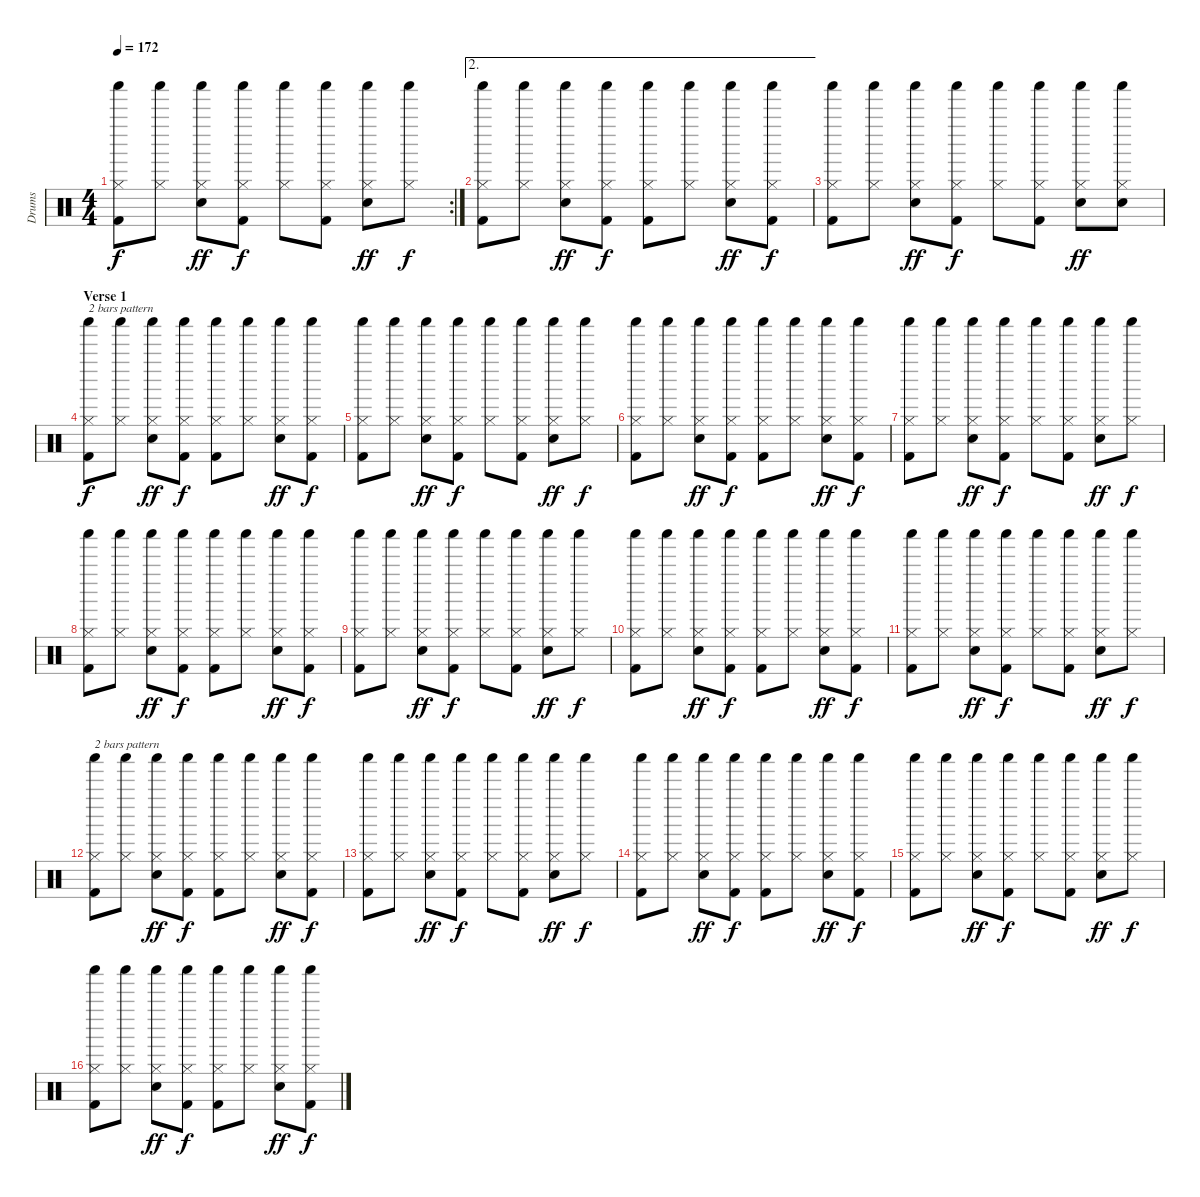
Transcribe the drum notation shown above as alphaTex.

\track ("Drums" "Drums") {instrument percussion}
\staff {score}
\articulation defaults
\rc 2
\ts (4 4)
\tempo 172
\clef neutral
\ks c
("Hi-Hat (closed)" "Shaker (hit)" "Kick (hit) 2").8{dy f} ("Hi-Hat (closed)" "Shaker (hit)").8 ("Hi-Hat (closed)" "Shaker (hit)" "Electric Snare (hit)").8{dy ff} ("Hi-Hat (closed)" "Shaker (hit)" "Kick (hit) 2").8{dy f} ("Hi-Hat (closed)" "Shaker (hit)").8 ("Hi-Hat (closed)" "Shaker (hit)" "Kick (hit) 2").8 ("Hi-Hat (closed)" "Shaker (hit)" "Electric Snare (hit)").8{dy ff} ("Hi-Hat (closed)" "Shaker (hit)").8{dy f} |
\ae 2
("Hi-Hat (closed)" "Shaker (hit)" "Kick (hit) 2").8 ("Hi-Hat (closed)" "Shaker (hit)").8 ("Hi-Hat (closed)" "Shaker (hit)" "Electric Snare (hit)").8{dy ff} ("Hi-Hat (closed)" "Shaker (hit)" "Kick (hit) 2").8{dy f} ("Hi-Hat (closed)" "Shaker (hit)" "Kick (hit) 2").8 ("Hi-Hat (closed)" "Shaker (hit)").8 ("Hi-Hat (closed)" "Shaker (hit)" "Electric Snare (hit)").8{dy ff} ("Hi-Hat (closed)" "Shaker (hit)" "Kick (hit) 2").8{dy f} |
("Hi-Hat (closed)" "Shaker (hit)" "Kick (hit) 2").8 ("Hi-Hat (closed)" "Shaker (hit)").8 ("Hi-Hat (closed)" "Shaker (hit)" "Electric Snare (hit)").8{dy ff} ("Hi-Hat (closed)" "Shaker (hit)" "Kick (hit) 2").8{dy f} ("Hi-Hat (closed)" "Shaker (hit)").8 ("Hi-Hat (closed)" "Shaker (hit)" "Kick (hit) 2").8 ("Hi-Hat (closed)" "Shaker (hit)" "Electric Snare (hit)").8{dy ff} ("Hi-Hat (closed)" "Shaker (hit)" "Electric Snare (hit)").8 |
\section ("" "Verse 1")
("Hi-Hat (closed)" "Shaker (hit)" "Kick (hit) 2").8{txt "2 bars pattern" dy f} ("Hi-Hat (closed)" "Shaker (hit)").8 ("Hi-Hat (closed)" "Shaker (hit)" "Electric Snare (hit)").8{dy ff} ("Hi-Hat (closed)" "Shaker (hit)" "Kick (hit) 2").8{dy f} ("Hi-Hat (closed)" "Shaker (hit)" "Kick (hit) 2").8 ("Hi-Hat (closed)" "Shaker (hit)").8 ("Hi-Hat (closed)" "Shaker (hit)" "Electric Snare (hit)").8{dy ff} ("Hi-Hat (closed)" "Shaker (hit)" "Kick (hit) 2").8{dy f} |
("Hi-Hat (closed)" "Shaker (hit)" "Kick (hit) 2").8 ("Hi-Hat (closed)" "Shaker (hit)").8 ("Hi-Hat (closed)" "Shaker (hit)" "Electric Snare (hit)").8{dy ff} ("Hi-Hat (closed)" "Shaker (hit)" "Kick (hit) 2").8{dy f} ("Hi-Hat (closed)" "Shaker (hit)").8 ("Hi-Hat (closed)" "Shaker (hit)" "Kick (hit) 2").8 ("Hi-Hat (closed)" "Shaker (hit)" "Electric Snare (hit)").8{dy ff} ("Hi-Hat (closed)" "Shaker (hit)").8{dy f} |
("Hi-Hat (closed)" "Shaker (hit)" "Kick (hit) 2").8 ("Hi-Hat (closed)" "Shaker (hit)").8 ("Hi-Hat (closed)" "Shaker (hit)" "Electric Snare (hit)").8{dy ff} ("Hi-Hat (closed)" "Shaker (hit)" "Kick (hit) 2").8{dy f} ("Hi-Hat (closed)" "Shaker (hit)" "Kick (hit) 2").8 ("Hi-Hat (closed)" "Shaker (hit)").8 ("Hi-Hat (closed)" "Shaker (hit)" "Electric Snare (hit)").8{dy ff} ("Hi-Hat (closed)" "Shaker (hit)" "Kick (hit) 2").8{dy f} |
("Hi-Hat (closed)" "Shaker (hit)" "Kick (hit) 2").8 ("Hi-Hat (closed)" "Shaker (hit)").8 ("Hi-Hat (closed)" "Shaker (hit)" "Electric Snare (hit)").8{dy ff} ("Hi-Hat (closed)" "Shaker (hit)" "Kick (hit) 2").8{dy f} ("Hi-Hat (closed)" "Shaker (hit)").8 ("Hi-Hat (closed)" "Shaker (hit)" "Kick (hit) 2").8 ("Hi-Hat (closed)" "Shaker (hit)" "Electric Snare (hit)").8{dy ff} ("Hi-Hat (closed)" "Shaker (hit)").8{dy f} |
("Hi-Hat (closed)" "Shaker (hit)" "Kick (hit) 2").8 ("Hi-Hat (closed)" "Shaker (hit)").8 ("Hi-Hat (closed)" "Shaker (hit)" "Electric Snare (hit)").8{dy ff} ("Hi-Hat (closed)" "Shaker (hit)" "Kick (hit) 2").8{dy f} ("Hi-Hat (closed)" "Shaker (hit)" "Kick (hit) 2").8 ("Hi-Hat (closed)" "Shaker (hit)").8 ("Hi-Hat (closed)" "Shaker (hit)" "Electric Snare (hit)").8{dy ff} ("Hi-Hat (closed)" "Shaker (hit)" "Kick (hit) 2").8{dy f} |
("Hi-Hat (closed)" "Shaker (hit)" "Kick (hit) 2").8 ("Hi-Hat (closed)" "Shaker (hit)").8 ("Hi-Hat (closed)" "Shaker (hit)" "Electric Snare (hit)").8{dy ff} ("Hi-Hat (closed)" "Shaker (hit)" "Kick (hit) 2").8{dy f} ("Hi-Hat (closed)" "Shaker (hit)").8 ("Hi-Hat (closed)" "Shaker (hit)" "Kick (hit) 2").8 ("Hi-Hat (closed)" "Shaker (hit)" "Electric Snare (hit)").8{dy ff} ("Hi-Hat (closed)" "Shaker (hit)").8{dy f} |
("Hi-Hat (closed)" "Shaker (hit)" "Kick (hit) 2").8 ("Hi-Hat (closed)" "Shaker (hit)").8 ("Hi-Hat (closed)" "Shaker (hit)" "Electric Snare (hit)").8{dy ff} ("Hi-Hat (closed)" "Shaker (hit)" "Kick (hit) 2").8{dy f} ("Hi-Hat (closed)" "Shaker (hit)" "Kick (hit) 2").8 ("Hi-Hat (closed)" "Shaker (hit)").8 ("Hi-Hat (closed)" "Shaker (hit)" "Electric Snare (hit)").8{dy ff} ("Hi-Hat (closed)" "Shaker (hit)" "Kick (hit) 2").8{dy f} |
("Hi-Hat (closed)" "Shaker (hit)" "Kick (hit) 2").8 ("Hi-Hat (closed)" "Shaker (hit)").8 ("Hi-Hat (closed)" "Shaker (hit)" "Electric Snare (hit)").8{dy ff} ("Hi-Hat (closed)" "Shaker (hit)" "Kick (hit) 2").8{dy f} ("Hi-Hat (closed)" "Shaker (hit)").8 ("Hi-Hat (closed)" "Shaker (hit)" "Kick (hit) 2").8 ("Hi-Hat (closed)" "Shaker (hit)" "Electric Snare (hit)").8{dy ff} ("Hi-Hat (closed)" "Shaker (hit)").8{dy f} |
("Hi-Hat (closed)" "Shaker (hit)" "Kick (hit) 2").8{txt "2 bars pattern"} ("Hi-Hat (closed)" "Shaker (hit)").8 ("Hi-Hat (closed)" "Shaker (hit)" "Electric Snare (hit)").8{dy ff} ("Hi-Hat (closed)" "Shaker (hit)" "Kick (hit) 2").8{dy f} ("Hi-Hat (closed)" "Shaker (hit)" "Kick (hit) 2").8 ("Hi-Hat (closed)" "Shaker (hit)").8 ("Hi-Hat (closed)" "Shaker (hit)" "Electric Snare (hit)").8{dy ff} ("Hi-Hat (closed)" "Shaker (hit)" "Kick (hit) 2").8{dy f} |
("Hi-Hat (closed)" "Shaker (hit)" "Kick (hit) 2").8 ("Hi-Hat (closed)" "Shaker (hit)").8 ("Hi-Hat (closed)" "Shaker (hit)" "Electric Snare (hit)").8{dy ff} ("Hi-Hat (closed)" "Shaker (hit)" "Kick (hit) 2").8{dy f} ("Hi-Hat (closed)" "Shaker (hit)").8 ("Hi-Hat (closed)" "Shaker (hit)" "Kick (hit) 2").8 ("Hi-Hat (closed)" "Shaker (hit)" "Electric Snare (hit)").8{dy ff} ("Hi-Hat (closed)" "Shaker (hit)").8{dy f} |
("Hi-Hat (closed)" "Shaker (hit)" "Kick (hit) 2").8 ("Hi-Hat (closed)" "Shaker (hit)").8 ("Hi-Hat (closed)" "Shaker (hit)" "Electric Snare (hit)").8{dy ff} ("Hi-Hat (closed)" "Shaker (hit)" "Kick (hit) 2").8{dy f} ("Hi-Hat (closed)" "Shaker (hit)" "Kick (hit) 2").8 ("Hi-Hat (closed)" "Shaker (hit)").8 ("Hi-Hat (closed)" "Shaker (hit)" "Electric Snare (hit)").8{dy ff} ("Hi-Hat (closed)" "Shaker (hit)" "Kick (hit) 2").8{dy f} |
("Hi-Hat (closed)" "Shaker (hit)" "Kick (hit) 2").8 ("Hi-Hat (closed)" "Shaker (hit)").8 ("Hi-Hat (closed)" "Shaker (hit)" "Electric Snare (hit)").8{dy ff} ("Hi-Hat (closed)" "Shaker (hit)" "Kick (hit) 2").8{dy f} ("Hi-Hat (closed)" "Shaker (hit)").8 ("Hi-Hat (closed)" "Shaker (hit)" "Kick (hit) 2").8 ("Hi-Hat (closed)" "Shaker (hit)" "Electric Snare (hit)").8{dy ff} ("Hi-Hat (closed)" "Shaker (hit)").8{dy f} |
("Hi-Hat (closed)" "Shaker (hit)" "Kick (hit) 2").8 ("Hi-Hat (closed)" "Shaker (hit)").8 ("Hi-Hat (closed)" "Shaker (hit)" "Electric Snare (hit)").8{dy ff} ("Hi-Hat (closed)" "Shaker (hit)" "Kick (hit) 2").8{dy f} ("Hi-Hat (closed)" "Shaker (hit)" "Kick (hit) 2").8 ("Hi-Hat (closed)" "Shaker (hit)").8 ("Hi-Hat (closed)" "Shaker (hit)" "Electric Snare (hit)").8{dy ff} ("Hi-Hat (closed)" "Shaker (hit)" "Kick (hit) 2").8{dy f}
